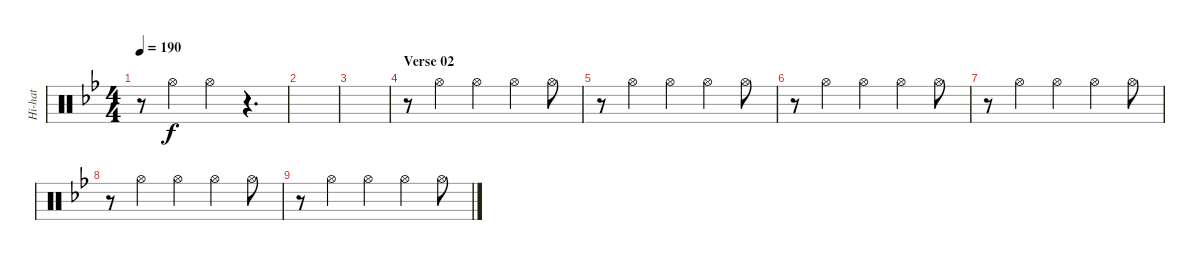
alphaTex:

\track ("Hi-hat" "Hi-hat") {instrument percussion}
\staff {score}
\articulation defaults
\ts (4 4)
\tempo 190
\clef neutral
\ks bb
r.8{dy f} "Hi-Hat (open)".4 "Hi-Hat (open)".4 r.4{d} |
|
|
\section ("" "Verse 02")
r.8 "Hi-Hat (open)".4 "Hi-Hat (open)".4 "Hi-Hat (open)".4 "Hi-Hat (open)".8 |
r.8 "Hi-Hat (open)".4 "Hi-Hat (open)".4 "Hi-Hat (open)".4 "Hi-Hat (open)".8 |
r.8 "Hi-Hat (open)".4 "Hi-Hat (open)".4 "Hi-Hat (open)".4 "Hi-Hat (open)".8 |
r.8 "Hi-Hat (open)".4 "Hi-Hat (open)".4 "Hi-Hat (open)".4 "Hi-Hat (open)".8 |
r.8 "Hi-Hat (open)".4 "Hi-Hat (open)".4 "Hi-Hat (open)".4 "Hi-Hat (open)".8 |
r.8 "Hi-Hat (open)".4 "Hi-Hat (open)".4 "Hi-Hat (open)".4 "Hi-Hat (open)".8
